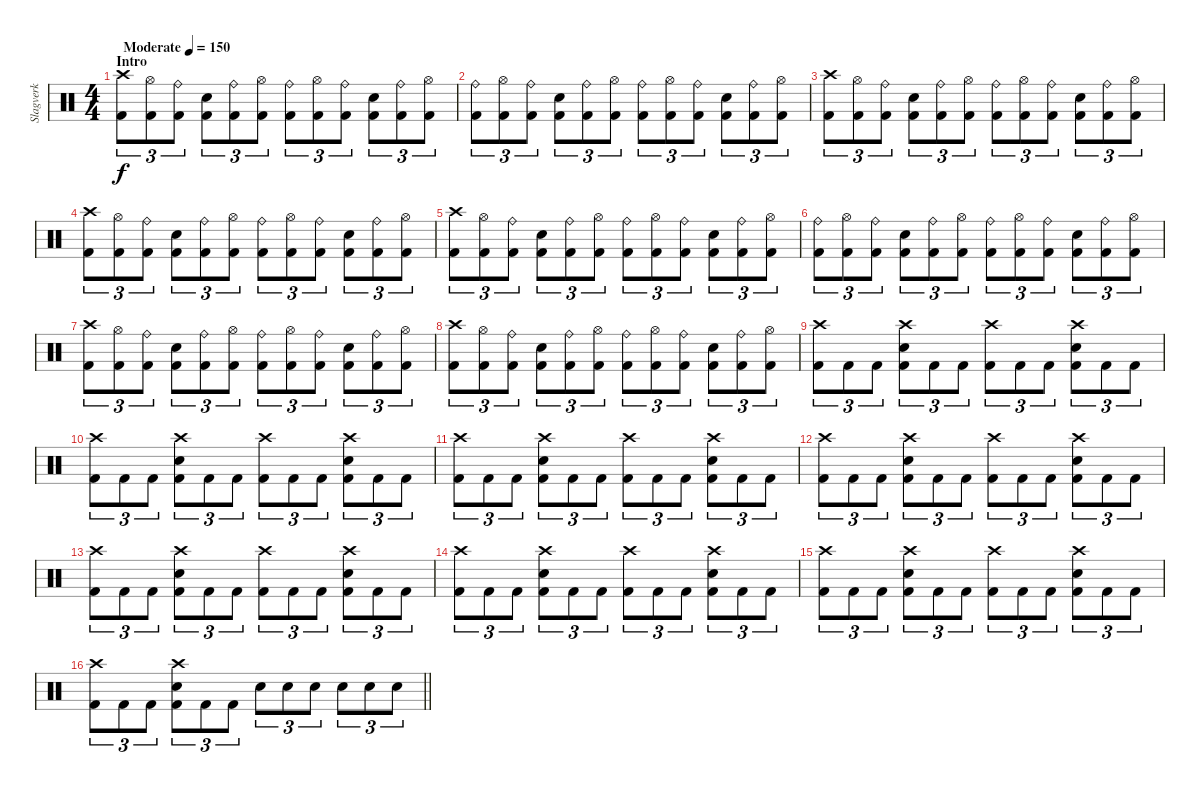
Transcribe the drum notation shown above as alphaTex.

\track ("Slagverk" "Slagverk") {instrument percussion}
\staff {score}
\articulation defaults
\ts (4 4)
\section ("" "Intro")
\tempo (150 "Moderate")
\clef neutral
\ks c
("Crash high (hit)" "Kick (hit) 2").8{tu (3 2) dy f} ("Hi-Hat (open)" "Kick (hit) 2").8{tu (3 2)} ("Ride (bell)" "Kick (hit) 2").8{tu (3 2)} ("Electric Snare (hit)" "Kick (hit) 2").8{tu (3 2)} ("Ride (bell)" "Kick (hit) 2").8{tu (3 2)} ("Hi-Hat (open)" "Kick (hit) 2").8{tu (3 2)} ("Ride (bell)" "Kick (hit) 2").8{tu (3 2)} ("Hi-Hat (open)" "Kick (hit) 2").8{tu (3 2)} ("Ride (bell)" "Kick (hit) 2").8{tu (3 2)} ("Electric Snare (hit)" "Kick (hit) 2").8{tu (3 2)} ("Ride (bell)" "Kick (hit) 2").8{tu (3 2)} ("Hi-Hat (open)" "Kick (hit) 2").8{tu (3 2)} |
("Ride (bell)" "Kick (hit) 2").8{tu (3 2)} ("Hi-Hat (open)" "Kick (hit) 2").8{tu (3 2)} ("Ride (bell)" "Kick (hit) 2").8{tu (3 2)} ("Electric Snare (hit)" "Kick (hit) 2").8{tu (3 2)} ("Ride (bell)" "Kick (hit) 2").8{tu (3 2)} ("Hi-Hat (open)" "Kick (hit) 2").8{tu (3 2)} ("Ride (bell)" "Kick (hit) 2").8{tu (3 2)} ("Hi-Hat (open)" "Kick (hit) 2").8{tu (3 2)} ("Ride (bell)" "Kick (hit) 2").8{tu (3 2)} ("Electric Snare (hit)" "Kick (hit) 2").8{tu (3 2)} ("Ride (bell)" "Kick (hit) 2").8{tu (3 2)} ("Hi-Hat (open)" "Kick (hit) 2").8{tu (3 2)} |
("Crash high (hit)" "Kick (hit) 2").8{tu (3 2)} ("Hi-Hat (open)" "Kick (hit) 2").8{tu (3 2)} ("Ride (bell)" "Kick (hit) 2").8{tu (3 2)} ("Electric Snare (hit)" "Kick (hit) 2").8{tu (3 2)} ("Ride (bell)" "Kick (hit) 2").8{tu (3 2)} ("Hi-Hat (open)" "Kick (hit) 2").8{tu (3 2)} ("Ride (bell)" "Kick (hit) 2").8{tu (3 2)} ("Hi-Hat (open)" "Kick (hit) 2").8{tu (3 2)} ("Ride (bell)" "Kick (hit) 2").8{tu (3 2)} ("Electric Snare (hit)" "Kick (hit) 2").8{tu (3 2)} ("Ride (bell)" "Kick (hit) 2").8{tu (3 2)} ("Hi-Hat (open)" "Kick (hit) 2").8{tu (3 2)} |
("Crash high (hit)" "Kick (hit) 2").8{tu (3 2)} ("Hi-Hat (open)" "Kick (hit) 2").8{tu (3 2)} ("Ride (bell)" "Kick (hit) 2").8{tu (3 2)} ("Electric Snare (hit)" "Kick (hit) 2").8{tu (3 2)} ("Ride (bell)" "Kick (hit) 2").8{tu (3 2)} ("Hi-Hat (open)" "Kick (hit) 2").8{tu (3 2)} ("Ride (bell)" "Kick (hit) 2").8{tu (3 2)} ("Hi-Hat (open)" "Kick (hit) 2").8{tu (3 2)} ("Ride (bell)" "Kick (hit) 2").8{tu (3 2)} ("Electric Snare (hit)" "Kick (hit) 2").8{tu (3 2)} ("Ride (bell)" "Kick (hit) 2").8{tu (3 2)} ("Hi-Hat (open)" "Kick (hit) 2").8{tu (3 2)} |
("Crash high (hit)" "Kick (hit) 2").8{tu (3 2)} ("Hi-Hat (open)" "Kick (hit) 2").8{tu (3 2)} ("Ride (bell)" "Kick (hit) 2").8{tu (3 2)} ("Electric Snare (hit)" "Kick (hit) 2").8{tu (3 2)} ("Ride (bell)" "Kick (hit) 2").8{tu (3 2)} ("Hi-Hat (open)" "Kick (hit) 2").8{tu (3 2)} ("Ride (bell)" "Kick (hit) 2").8{tu (3 2)} ("Hi-Hat (open)" "Kick (hit) 2").8{tu (3 2)} ("Ride (bell)" "Kick (hit) 2").8{tu (3 2)} ("Electric Snare (hit)" "Kick (hit) 2").8{tu (3 2)} ("Ride (bell)" "Kick (hit) 2").8{tu (3 2)} ("Hi-Hat (open)" "Kick (hit) 2").8{tu (3 2)} |
("Ride (bell)" "Kick (hit) 2").8{tu (3 2)} ("Hi-Hat (open)" "Kick (hit) 2").8{tu (3 2)} ("Ride (bell)" "Kick (hit) 2").8{tu (3 2)} ("Electric Snare (hit)" "Kick (hit) 2").8{tu (3 2)} ("Ride (bell)" "Kick (hit) 2").8{tu (3 2)} ("Hi-Hat (open)" "Kick (hit) 2").8{tu (3 2)} ("Ride (bell)" "Kick (hit) 2").8{tu (3 2)} ("Hi-Hat (open)" "Kick (hit) 2").8{tu (3 2)} ("Ride (bell)" "Kick (hit) 2").8{tu (3 2)} ("Electric Snare (hit)" "Kick (hit) 2").8{tu (3 2)} ("Ride (bell)" "Kick (hit) 2").8{tu (3 2)} ("Hi-Hat (open)" "Kick (hit) 2").8{tu (3 2)} |
("Crash high (hit)" "Kick (hit) 2").8{tu (3 2)} ("Hi-Hat (open)" "Kick (hit) 2").8{tu (3 2)} ("Ride (bell)" "Kick (hit) 2").8{tu (3 2)} ("Electric Snare (hit)" "Kick (hit) 2").8{tu (3 2)} ("Ride (bell)" "Kick (hit) 2").8{tu (3 2)} ("Hi-Hat (open)" "Kick (hit) 2").8{tu (3 2)} ("Ride (bell)" "Kick (hit) 2").8{tu (3 2)} ("Hi-Hat (open)" "Kick (hit) 2").8{tu (3 2)} ("Ride (bell)" "Kick (hit) 2").8{tu (3 2)} ("Electric Snare (hit)" "Kick (hit) 2").8{tu (3 2)} ("Ride (bell)" "Kick (hit) 2").8{tu (3 2)} ("Hi-Hat (open)" "Kick (hit) 2").8{tu (3 2)} |
("Crash high (hit)" "Kick (hit) 2").8{tu (3 2)} ("Hi-Hat (open)" "Kick (hit) 2").8{tu (3 2)} ("Ride (bell)" "Kick (hit) 2").8{tu (3 2)} ("Electric Snare (hit)" "Kick (hit) 2").8{tu (3 2)} ("Ride (bell)" "Kick (hit) 2").8{tu (3 2)} ("Hi-Hat (open)" "Kick (hit) 2").8{tu (3 2)} ("Ride (bell)" "Kick (hit) 2").8{tu (3 2)} ("Hi-Hat (open)" "Kick (hit) 2").8{tu (3 2)} ("Ride (bell)" "Kick (hit) 2").8{tu (3 2)} ("Electric Snare (hit)" "Kick (hit) 2").8{tu (3 2)} ("Ride (bell)" "Kick (hit) 2").8{tu (3 2)} ("Hi-Hat (open)" "Kick (hit) 2").8{tu (3 2)} |
("Crash high (hit)" "Kick (hit) 2").8{tu (3 2)} "Kick (hit) 2".8{tu (3 2)} "Kick (hit) 2".8{tu (3 2)} ("Crash high (hit)" "Electric Snare (hit)" "Kick (hit) 2").8{tu (3 2)} "Kick (hit) 2".8{tu (3 2)} "Kick (hit) 2".8{tu (3 2)} ("Crash high (hit)" "Kick (hit) 2").8{tu (3 2)} "Kick (hit) 2".8{tu (3 2)} "Kick (hit) 2".8{tu (3 2)} ("Crash high (hit)" "Electric Snare (hit)" "Kick (hit) 2").8{tu (3 2)} "Kick (hit) 2".8{tu (3 2)} "Kick (hit) 2".8{tu (3 2)} |
("Crash high (hit)" "Kick (hit) 2").8{tu (3 2)} "Kick (hit) 2".8{tu (3 2)} "Kick (hit) 2".8{tu (3 2)} ("Crash high (hit)" "Electric Snare (hit)" "Kick (hit) 2").8{tu (3 2)} "Kick (hit) 2".8{tu (3 2)} "Kick (hit) 2".8{tu (3 2)} ("Crash high (hit)" "Kick (hit) 2").8{tu (3 2)} "Kick (hit) 2".8{tu (3 2)} "Kick (hit) 2".8{tu (3 2)} ("Crash high (hit)" "Electric Snare (hit)" "Kick (hit) 2").8{tu (3 2)} "Kick (hit) 2".8{tu (3 2)} "Kick (hit) 2".8{tu (3 2)} |
("Crash high (hit)" "Kick (hit) 2").8{tu (3 2)} "Kick (hit) 2".8{tu (3 2)} "Kick (hit) 2".8{tu (3 2)} ("Crash high (hit)" "Electric Snare (hit)" "Kick (hit) 2").8{tu (3 2)} "Kick (hit) 2".8{tu (3 2)} "Kick (hit) 2".8{tu (3 2)} ("Crash high (hit)" "Kick (hit) 2").8{tu (3 2)} "Kick (hit) 2".8{tu (3 2)} "Kick (hit) 2".8{tu (3 2)} ("Crash high (hit)" "Electric Snare (hit)" "Kick (hit) 2").8{tu (3 2)} "Kick (hit) 2".8{tu (3 2)} "Kick (hit) 2".8{tu (3 2)} |
("Crash high (hit)" "Kick (hit) 2").8{tu (3 2)} "Kick (hit) 2".8{tu (3 2)} "Kick (hit) 2".8{tu (3 2)} ("Crash high (hit)" "Electric Snare (hit)" "Kick (hit) 2").8{tu (3 2)} "Kick (hit) 2".8{tu (3 2)} "Kick (hit) 2".8{tu (3 2)} ("Crash high (hit)" "Kick (hit) 2").8{tu (3 2)} "Kick (hit) 2".8{tu (3 2)} "Kick (hit) 2".8{tu (3 2)} ("Crash high (hit)" "Electric Snare (hit)" "Kick (hit) 2").8{tu (3 2)} "Kick (hit) 2".8{tu (3 2)} "Kick (hit) 2".8{tu (3 2)} |
("Crash high (hit)" "Kick (hit) 2").8{tu (3 2)} "Kick (hit) 2".8{tu (3 2)} "Kick (hit) 2".8{tu (3 2)} ("Crash high (hit)" "Electric Snare (hit)" "Kick (hit) 2").8{tu (3 2)} "Kick (hit) 2".8{tu (3 2)} "Kick (hit) 2".8{tu (3 2)} ("Crash high (hit)" "Kick (hit) 2").8{tu (3 2)} "Kick (hit) 2".8{tu (3 2)} "Kick (hit) 2".8{tu (3 2)} ("Crash high (hit)" "Electric Snare (hit)" "Kick (hit) 2").8{tu (3 2)} "Kick (hit) 2".8{tu (3 2)} "Kick (hit) 2".8{tu (3 2)} |
("Crash high (hit)" "Kick (hit) 2").8{tu (3 2)} "Kick (hit) 2".8{tu (3 2)} "Kick (hit) 2".8{tu (3 2)} ("Crash high (hit)" "Electric Snare (hit)" "Kick (hit) 2").8{tu (3 2)} "Kick (hit) 2".8{tu (3 2)} "Kick (hit) 2".8{tu (3 2)} ("Crash high (hit)" "Kick (hit) 2").8{tu (3 2)} "Kick (hit) 2".8{tu (3 2)} "Kick (hit) 2".8{tu (3 2)} ("Crash high (hit)" "Electric Snare (hit)" "Kick (hit) 2").8{tu (3 2)} "Kick (hit) 2".8{tu (3 2)} "Kick (hit) 2".8{tu (3 2)} |
("Crash high (hit)" "Kick (hit) 2").8{tu (3 2)} "Kick (hit) 2".8{tu (3 2)} "Kick (hit) 2".8{tu (3 2)} ("Crash high (hit)" "Electric Snare (hit)" "Kick (hit) 2").8{tu (3 2)} "Kick (hit) 2".8{tu (3 2)} "Kick (hit) 2".8{tu (3 2)} ("Crash high (hit)" "Kick (hit) 2").8{tu (3 2)} "Kick (hit) 2".8{tu (3 2)} "Kick (hit) 2".8{tu (3 2)} ("Crash high (hit)" "Electric Snare (hit)" "Kick (hit) 2").8{tu (3 2)} "Kick (hit) 2".8{tu (3 2)} "Kick (hit) 2".8{tu (3 2)} |
\barLineRight lightlight
("Crash high (hit)" "Kick (hit) 2").8{tu (3 2)} "Kick (hit) 2".8{tu (3 2)} "Kick (hit) 2".8{tu (3 2)} ("Crash high (hit)" "Electric Snare (hit)" "Kick (hit) 2").8{tu (3 2)} "Kick (hit) 2".8{tu (3 2)} "Kick (hit) 2".8{tu (3 2)} "Electric Snare (hit)".8{tu (3 2)} "Electric Snare (hit)".8{tu (3 2)} "Electric Snare (hit)".8{tu (3 2)} "Electric Snare (hit)".8{tu (3 2)} "Electric Snare (hit)".8{tu (3 2)} "Electric Snare (hit)".8{tu (3 2)}
